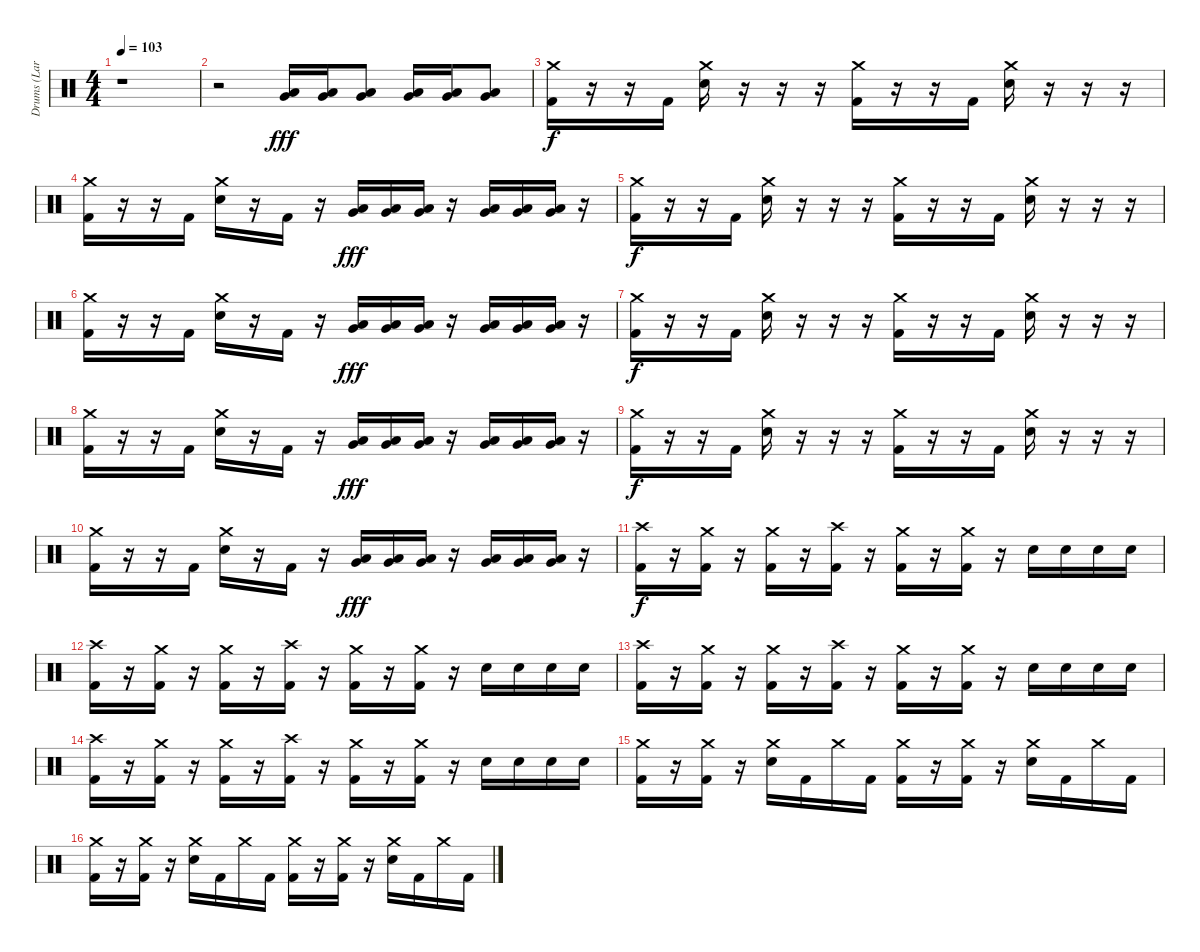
\track ("Drums (Lars)" "Drums (Lar") {instrument percussion}
\staff {score}
\articulation defaults
\ts (4 4)
\tempo 103
\clef neutral
\ks c
r.1{dy fff} |
r.2 ("Very Low Tom (hit)" "Low Tom (hit)").16 ("Very Low Tom (hit)" "Low Tom (hit)").16 ("Very Low Tom (hit)" "Low Tom (hit)").8 ("Very Low Tom (hit)" "Low Tom (hit)").16 ("Very Low Tom (hit)" "Low Tom (hit)").16 ("Very Low Tom (hit)" "Low Tom (hit)").8 |
("Crash medium (hit)" "Kick (hit) 2").16{dy f} r.16 r.16 "Kick (hit) 2".16 ("Crash medium (hit)" "Snare (hit) 2").16 r.16 r.16 r.16 ("Crash medium (hit)" "Kick (hit) 2").16 r.16 r.16 "Kick (hit) 2".16 ("Crash medium (hit)" "Snare (hit) 2").16 r.16 r.16 r.16 |
("Crash medium (hit)" "Kick (hit) 2").16 r.16 r.16 "Kick (hit) 2".16 ("Crash medium (hit)" "Snare (hit) 2").16 r.16 "Kick (hit) 2".16 r.16 ("Very Low Tom (hit)" "Low Tom (hit)").16{dy fff} ("Very Low Tom (hit)" "Low Tom (hit)").16 ("Very Low Tom (hit)" "Low Tom (hit)").16 r.16 ("Very Low Tom (hit)" "Low Tom (hit)").16 ("Very Low Tom (hit)" "Low Tom (hit)").16 ("Very Low Tom (hit)" "Low Tom (hit)").16 r.16 |
("Crash medium (hit)" "Kick (hit) 2").16{dy f} r.16 r.16 "Kick (hit) 2".16 ("Crash medium (hit)" "Snare (hit) 2").16 r.16 r.16 r.16 ("Crash medium (hit)" "Kick (hit) 2").16 r.16 r.16 "Kick (hit) 2".16 ("Crash medium (hit)" "Snare (hit) 2").16 r.16 r.16 r.16 |
("Crash medium (hit)" "Kick (hit) 2").16 r.16 r.16 "Kick (hit) 2".16 ("Crash medium (hit)" "Snare (hit) 2").16 r.16 "Kick (hit) 2".16 r.16 ("Very Low Tom (hit)" "Low Tom (hit)").16{dy fff} ("Very Low Tom (hit)" "Low Tom (hit)").16 ("Very Low Tom (hit)" "Low Tom (hit)").16 r.16 ("Very Low Tom (hit)" "Low Tom (hit)").16 ("Very Low Tom (hit)" "Low Tom (hit)").16 ("Very Low Tom (hit)" "Low Tom (hit)").16 r.16 |
("Crash medium (hit)" "Kick (hit) 2").16{dy f} r.16 r.16 "Kick (hit) 2".16 ("Crash medium (hit)" "Snare (hit) 2").16 r.16 r.16 r.16 ("Crash medium (hit)" "Kick (hit) 2").16 r.16 r.16 "Kick (hit) 2".16 ("Crash medium (hit)" "Snare (hit) 2").16 r.16 r.16 r.16 |
("Crash medium (hit)" "Kick (hit) 2").16 r.16 r.16 "Kick (hit) 2".16 ("Crash medium (hit)" "Snare (hit) 2").16 r.16 "Kick (hit) 2".16 r.16 ("Very Low Tom (hit)" "Low Tom (hit)").16{dy fff} ("Very Low Tom (hit)" "Low Tom (hit)").16 ("Very Low Tom (hit)" "Low Tom (hit)").16 r.16 ("Very Low Tom (hit)" "Low Tom (hit)").16 ("Very Low Tom (hit)" "Low Tom (hit)").16 ("Very Low Tom (hit)" "Low Tom (hit)").16 r.16 |
("Crash medium (hit)" "Kick (hit) 2").16{dy f} r.16 r.16 "Kick (hit) 2".16 ("Crash medium (hit)" "Snare (hit) 2").16 r.16 r.16 r.16 ("Crash medium (hit)" "Kick (hit) 2").16 r.16 r.16 "Kick (hit) 2".16 ("Crash medium (hit)" "Snare (hit) 2").16 r.16 r.16 r.16 |
("Crash medium (hit)" "Kick (hit) 2").16 r.16 r.16 "Kick (hit) 2".16 ("Crash medium (hit)" "Snare (hit) 2").16 r.16 "Kick (hit) 2".16 r.16 ("Very Low Tom (hit)" "Low Tom (hit)").16{dy fff} ("Very Low Tom (hit)" "Low Tom (hit)").16 ("Very Low Tom (hit)" "Low Tom (hit)").16 r.16 ("Very Low Tom (hit)" "Low Tom (hit)").16 ("Very Low Tom (hit)" "Low Tom (hit)").16 ("Very Low Tom (hit)" "Low Tom (hit)").16 r.16 |
("Crash high (hit)" "Kick (hit) 2").16{dy f} r.16 ("Crash medium (hit)" "Kick (hit) 2").16 r.16 ("Crash medium (hit)" "Kick (hit) 2").16 r.16 ("Crash high (hit)" "Kick (hit) 2").16 r.16 ("Crash medium (hit)" "Kick (hit) 2").16 r.16 ("Crash medium (hit)" "Kick (hit) 2").16 r.16 "Snare (hit) 2".16 "Snare (hit) 2".16 "Snare (hit) 2".16 "Snare (hit) 2".16 |
("Crash high (hit)" "Kick (hit) 2").16 r.16 ("Crash medium (hit)" "Kick (hit) 2").16 r.16 ("Crash medium (hit)" "Kick (hit) 2").16 r.16 ("Crash high (hit)" "Kick (hit) 2").16 r.16 ("Crash medium (hit)" "Kick (hit) 2").16 r.16 ("Crash medium (hit)" "Kick (hit) 2").16 r.16 "Snare (hit) 2".16 "Snare (hit) 2".16 "Snare (hit) 2".16 "Snare (hit) 2".16 |
("Crash high (hit)" "Kick (hit) 2").16 r.16 ("Crash medium (hit)" "Kick (hit) 2").16 r.16 ("Crash medium (hit)" "Kick (hit) 2").16 r.16 ("Crash high (hit)" "Kick (hit) 2").16 r.16 ("Crash medium (hit)" "Kick (hit) 2").16 r.16 ("Crash medium (hit)" "Kick (hit) 2").16 r.16 "Snare (hit) 2".16 "Snare (hit) 2".16 "Snare (hit) 2".16 "Snare (hit) 2".16 |
("Crash high (hit)" "Kick (hit) 2").16 r.16 ("Crash medium (hit)" "Kick (hit) 2").16 r.16 ("Crash medium (hit)" "Kick (hit) 2").16 r.16 ("Crash high (hit)" "Kick (hit) 2").16 r.16 ("Crash medium (hit)" "Kick (hit) 2").16 r.16 ("Crash medium (hit)" "Kick (hit) 2").16 r.16 "Snare (hit) 2".16 "Snare (hit) 2".16 "Snare (hit) 2".16 "Snare (hit) 2".16 |
("Crash medium (hit)" "Kick (hit) 2").16 r.16 ("Crash medium (hit)" "Kick (hit) 2").16 r.16 ("Crash medium (hit)" "Snare (hit) 2").16 "Kick (hit) 2".16 "Crash medium (hit)".16 "Kick (hit) 2".16 ("Crash medium (hit)" "Kick (hit) 2").16 r.16 ("Crash medium (hit)" "Kick (hit) 2").16 r.16 ("Crash medium (hit)" "Snare (hit) 2").16 "Kick (hit) 2".16 "Crash medium (hit)".16 "Kick (hit) 2".16 |
("Crash medium (hit)" "Kick (hit) 2").16 r.16 ("Crash medium (hit)" "Kick (hit) 2").16 r.16 ("Crash medium (hit)" "Snare (hit) 2").16 "Kick (hit) 2".16 "Crash medium (hit)".16 "Kick (hit) 2".16 ("Crash medium (hit)" "Kick (hit) 2").16 r.16 ("Crash medium (hit)" "Kick (hit) 2").16 r.16 ("Crash medium (hit)" "Snare (hit) 2").16 "Kick (hit) 2".16 "Crash medium (hit)".16 "Kick (hit) 2".16
